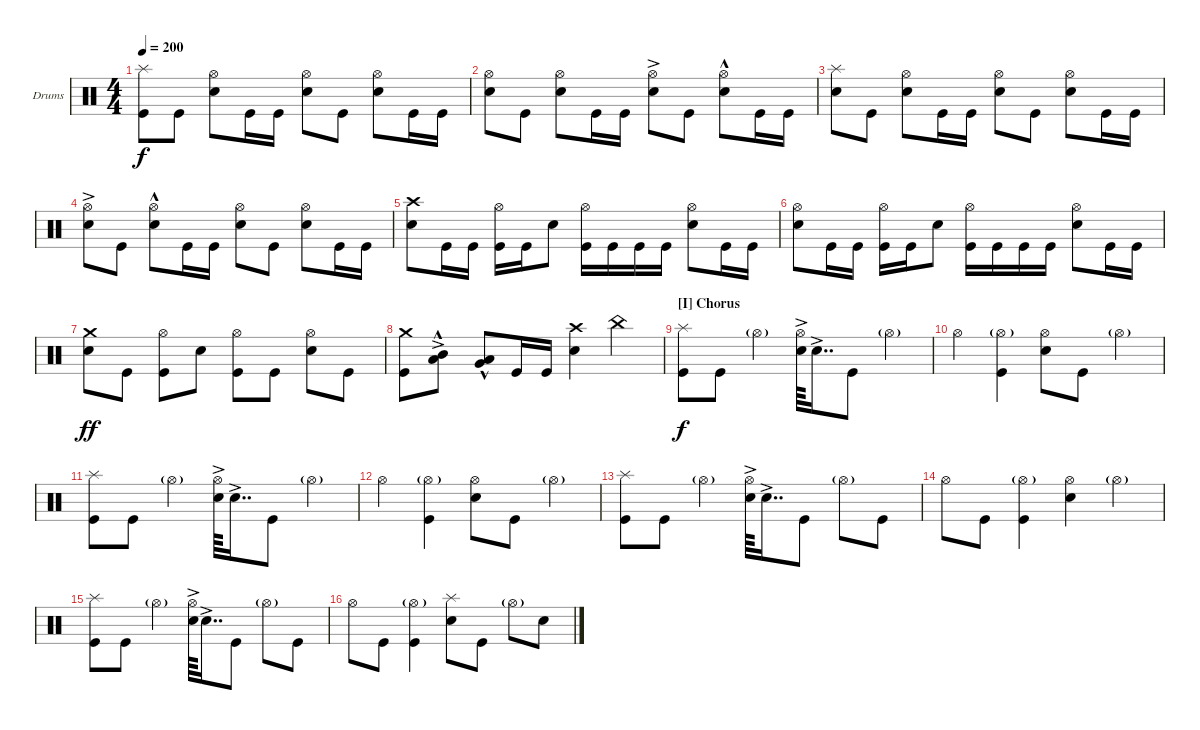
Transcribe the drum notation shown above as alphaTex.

\defaultSystemsLayout 4
\bracketExtendMode groupsimilarinstruments
\firstSystemTrackNameOrientation horizontal
\otherSystemsTrackNameOrientation horizontal
\track ("Drumkit" "Drums") {instrument percussion}
\staff {score}
\articulation defaults
\ts (4 4)
\tempo 200
\clef neutral
\ks c
("Kick (hit)" "Splash (hit)").8{dy f} "Kick (hit)".8 ("Snare (hit) 2" "Hi-Hat (open)").8 "Kick (hit)".16 "Kick (hit)".16 ("Snare (hit) 2" "Hi-Hat (open)").8 "Kick (hit)".8 ("Snare (hit) 2" "Hi-Hat (open)").8 "Kick (hit)".16 "Kick (hit)".16 |
("Snare (hit) 2" "Hi-Hat (open)").8 "Kick (hit)".8 ("Snare (hit) 2" "Hi-Hat (open)").8 "Kick (hit)".16 "Kick (hit)".16 ("Snare (hit) 2" "Hi-Hat (open)"{ac}).8 "Kick (hit)".8 ("Snare (hit) 2" "Hi-Hat (open)"{hac}).8 "Kick (hit)".16 "Kick (hit)".16 |
("Snare (hit) 2" "Splash (hit)").8 "Kick (hit)".8 ("Snare (hit) 2" "Hi-Hat (open)").8 "Kick (hit)".16 "Kick (hit)".16 ("Snare (hit) 2" "Hi-Hat (open)").8 "Kick (hit)".8 ("Snare (hit) 2" "Hi-Hat (open)").8 "Kick (hit)".16 "Kick (hit)".16 |
("Snare (hit) 2" "Hi-Hat (open)"{ac}).8 "Kick (hit)".8 ("Snare (hit) 2" "Hi-Hat (open)"{hac}).8 "Kick (hit)".16 "Kick (hit)".16 ("Snare (hit) 2" "Hi-Hat (open)").8 "Kick (hit)".8 ("Snare (hit) 2" "Hi-Hat (open)").8 "Kick (hit)".16 "Kick (hit)".16 |
("Crash high (hit)" "Snare (hit) 2").8 "Kick (hit)".16 "Kick (hit)".16 ("Kick (hit)" "Hi-Hat (open)").16 "Kick (hit)".16 "Snare (hit) 2".8 ("Kick (hit)" "Hi-Hat (open)").16 "Kick (hit)".16 "Kick (hit)".16 "Kick (hit)".16 ("Snare (hit) 2" "Hi-Hat (open)").8 "Kick (hit)".16 "Kick (hit)".16 |
("Snare (hit) 2" "Hi-Hat (open)").8 "Kick (hit)".16 "Kick (hit)".16 ("Kick (hit)" "Hi-Hat (open)").16 "Kick (hit)".16 "Snare (hit) 2".8 ("Kick (hit)" "Hi-Hat (open)").16 "Kick (hit)".16 "Kick (hit)".16 "Kick (hit)".16 ("Snare (hit) 2" "Hi-Hat (open)").8 "Kick (hit)".16 "Kick (hit)".16 |
("Snare (hit) 2" "Crash medium (hit)").8{dy ff} "Kick (hit)".8 ("Kick (hit)" "Hi-Hat (open)").8 "Snare (hit) 2".8 ("Kick (hit)" "Hi-Hat (open)").8 "Kick (hit)".8 ("Snare (hit) 2" "Hi-Hat (open)").8 "Kick (hit)".8 |
("Kick (hit)" "Crash medium (hit)").8 ("Mid Tom (hit)"{ac} "Low Tom (hit)"{hac}).8 ("Low Tom (hit)"{hac} "Very Low Tom (hit)"{hac}).8 "Kick (hit)".16 "Kick (hit)".16 ("Snare (hit) 2" "Crash high (hit)").4 "China (hit)".4 |
\section ("I" "Chorus")
("Kick (hit)" "Splash (hit)").8{dy f} "Kick (hit)".8 "Hi-Hat (open)"{g}.4 ("Hi-Hat (open)" "Snare (hit) 2"{ac}).64 "Snare (hit) 2"{ac}.16{dd} "Kick (hit)".8 "Hi-Hat (open)"{g}.4 |
"Hi-Hat (open)".4 ("Hi-Hat (open)"{g} "Kick (hit)").4 ("Hi-Hat (open)" "Snare (hit) 2").8 "Kick (hit)".8 "Hi-Hat (open)"{g}.4 |
("Kick (hit)" "Splash (hit)").8 "Kick (hit)".8 "Hi-Hat (open)"{g}.4 ("Hi-Hat (open)" "Snare (hit) 2"{ac}).64 "Snare (hit) 2"{ac}.16{dd} "Kick (hit)".8 "Hi-Hat (open)"{g}.4 |
"Hi-Hat (open)".4 ("Hi-Hat (open)"{g} "Kick (hit)").4 ("Hi-Hat (open)" "Snare (hit) 2").8 "Kick (hit)".8 "Hi-Hat (open)"{g}.4 |
("Kick (hit)" "Splash (hit)").8 "Kick (hit)".8 "Hi-Hat (open)"{g}.4 ("Hi-Hat (open)" "Snare (hit) 2"{ac}).64 "Snare (hit) 2"{ac}.16{dd} "Kick (hit)".8 "Hi-Hat (open)"{g}.8 "Kick (hit)".8 |
"Hi-Hat (open)".8 "Kick (hit)".8 ("Kick (hit)" "Hi-Hat (open)"{g}).4 ("Snare (hit) 2" "Hi-Hat (open)").4 "Hi-Hat (open)"{g}.4 |
("Kick (hit)" "Splash (hit)").8 "Kick (hit)".8 "Hi-Hat (open)"{g}.4 ("Hi-Hat (open)" "Snare (hit) 2"{ac}).64 "Snare (hit) 2"{ac}.16{dd} "Kick (hit)".8 "Hi-Hat (open)"{g}.8 "Kick (hit)".8 |
"Hi-Hat (open)".8 "Kick (hit)".8 ("Kick (hit)" "Hi-Hat (open)"{g}).4 ("Snare (hit) 2" "Splash (hit)").8 "Kick (hit)".8 "Hi-Hat (open)"{g}.8 "Snare (hit) 2".8
